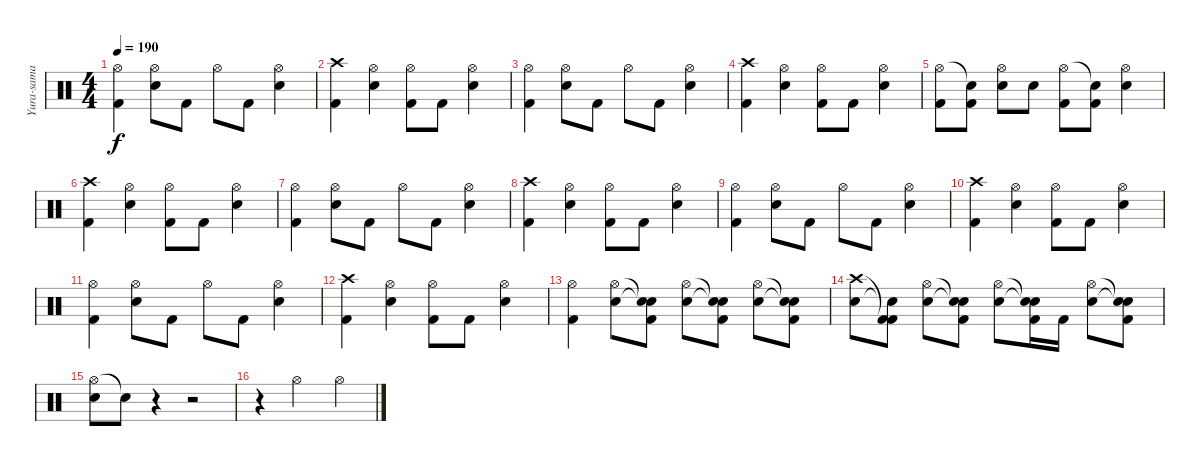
\track ("Yura-sama" "Yura-sama") {instrument percussion}
\staff {score}
\articulation defaults
\ts (4 4)
\tempo 190
\clef neutral
\ks c
("Hi-Hat (open)" "Kick (hit) 2").4{dy f} ("Hi-Hat (open)" "Electric Snare (hit)").8 "Kick (hit) 2".8 "Hi-Hat (open)".8 "Kick (hit) 2".8 ("Hi-Hat (open)" "Electric Snare (hit)").4 |
("Crash high (hit)" "Kick (hit) 2").4 ("Hi-Hat (open)" "Electric Snare (hit)").4 ("Hi-Hat (open)" "Kick (hit) 2").8 "Kick (hit) 2".8 ("Hi-Hat (open)" "Electric Snare (hit)").4 |
("Hi-Hat (open)" "Kick (hit) 2").4 ("Hi-Hat (open)" "Electric Snare (hit)").8 "Kick (hit) 2".8 "Hi-Hat (open)".8 "Kick (hit) 2".8 ("Hi-Hat (open)" "Electric Snare (hit)").4 |
("Crash high (hit)" "Kick (hit) 2").4 ("Hi-Hat (open)" "Electric Snare (hit)").4 ("Hi-Hat (open)" "Kick (hit) 2").8 "Kick (hit) 2".8 ("Hi-Hat (open)" "Electric Snare (hit)").4 |
("Hi-Hat (open)" "Kick (hit) 2").8 ("Snare (hit)"{t} "Kick (hit) 2").8 ("Hi-Hat (open)" "Electric Snare (hit)").8 "Electric Snare (hit)".8 ("Hi-Hat (open)" "Kick (hit) 2").8 ("Snare (hit)"{t} "Kick (hit) 2").8 ("Hi-Hat (open)" "Electric Snare (hit)").4 |
("Crash high (hit)" "Kick (hit) 2").4 ("Hi-Hat (open)" "Electric Snare (hit)").4 ("Hi-Hat (open)" "Kick (hit) 2").8 "Kick (hit) 2".8 ("Hi-Hat (open)" "Electric Snare (hit)").4 |
("Hi-Hat (open)" "Kick (hit) 2").4 ("Hi-Hat (open)" "Electric Snare (hit)").8 "Kick (hit) 2".8 "Hi-Hat (open)".8 "Kick (hit) 2".8 ("Hi-Hat (open)" "Electric Snare (hit)").4 |
("Crash high (hit)" "Kick (hit) 2").4 ("Hi-Hat (open)" "Electric Snare (hit)").4 ("Hi-Hat (open)" "Kick (hit) 2").8 "Kick (hit) 2".8 ("Hi-Hat (open)" "Electric Snare (hit)").4 |
("Hi-Hat (open)" "Kick (hit) 2").4 ("Hi-Hat (open)" "Electric Snare (hit)").8 "Kick (hit) 2".8 "Hi-Hat (open)".8 "Kick (hit) 2".8 ("Hi-Hat (open)" "Electric Snare (hit)").4 |
("Crash high (hit)" "Kick (hit) 2").4 ("Hi-Hat (open)" "Electric Snare (hit)").4 ("Hi-Hat (open)" "Kick (hit) 2").8 "Kick (hit) 2".8 ("Hi-Hat (open)" "Electric Snare (hit)").4 |
("Hi-Hat (open)" "Kick (hit) 2").4 ("Hi-Hat (open)" "Electric Snare (hit)").8 "Kick (hit) 2".8 "Hi-Hat (open)".8 "Kick (hit) 2".8 ("Hi-Hat (open)" "Electric Snare (hit)").4 |
("Crash high (hit)" "Kick (hit) 2").4 ("Hi-Hat (open)" "Electric Snare (hit)").4 ("Hi-Hat (open)" "Kick (hit) 2").8 "Kick (hit) 2".8 ("Hi-Hat (open)" "Electric Snare (hit)").4 |
("Hi-Hat (open)" "Kick (hit) 2").4 ("Hi-Hat (open)" "Electric Snare (hit)").8 ("Snare (hit)"{t} "Snare (hit)"{t} "Kick (hit) 2").8 ("Hi-Hat (open)" "Electric Snare (hit)").8 ("Snare (hit)"{t} "Snare (hit)"{t} "Kick (hit) 2").8 ("Hi-Hat (open)" "Electric Snare (hit)").8 ("Snare (hit)"{t} "Snare (hit)"{t} "Kick (hit) 2").8 |
("Crash high (hit)" "Electric Snare (hit)").8 ("Kick (hit) 2"{t} "Snare (hit)"{t} "Kick (hit) 2").8 ("Hi-Hat (open)" "Electric Snare (hit)").8 ("Snare (hit)"{t} "Snare (hit)"{t} "Kick (hit) 2").8 ("Hi-Hat (open)" "Electric Snare (hit)").8 ("Snare (hit)"{t} "Snare (hit)"{t} "Kick (hit) 2").16 "Kick (hit) 2".16 ("Hi-Hat (open)" "Electric Snare (hit)").8 ("Snare (hit)"{t} "Snare (hit)"{t} "Kick (hit) 2").8 |
("Hi-Hat (open)" "Electric Snare (hit)").8 "Snare (hit)"{t}.8 r.4 r.2 |
r.4 "Hi-Hat (open)".2 "Hi-Hat (open)".4
